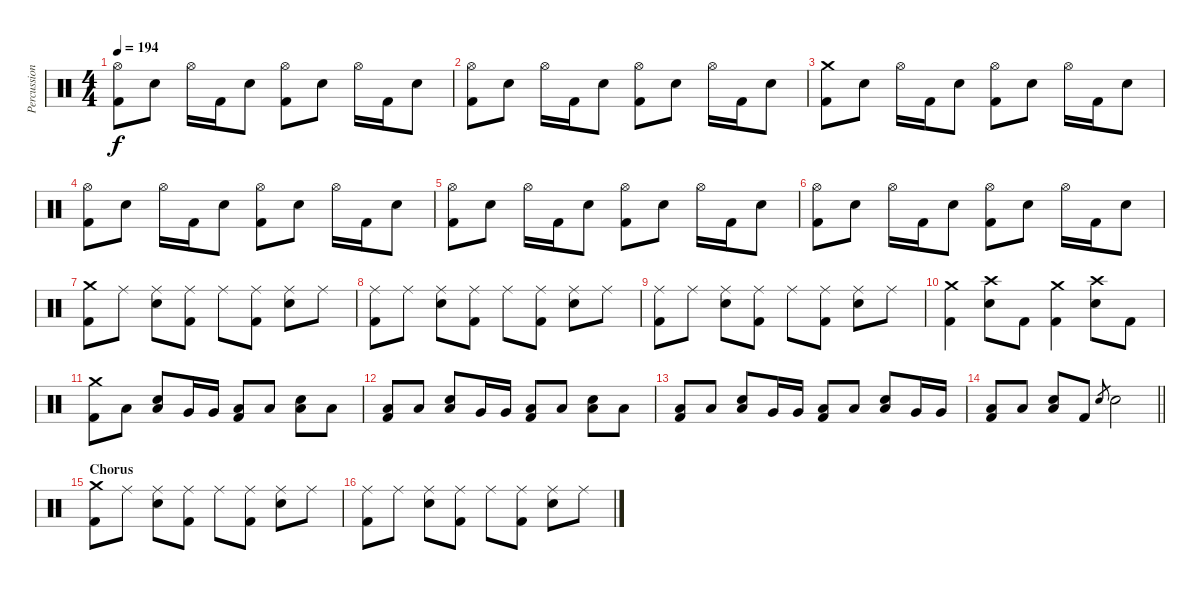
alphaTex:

\track ("Percussions" "Percussion") {instrument percussion}
\staff {score}
\articulation defaults
\ts (4 4)
\tempo 194
\clef neutral
\ks c
("Hi-Hat (open)" "Kick (hit) 2").8{dy f} "Electric Snare (hit)".8 "Hi-Hat (open)".16 "Kick (hit) 2".16 "Electric Snare (hit)".8 ("Hi-Hat (open)" "Kick (hit) 2").8 "Electric Snare (hit)".8 "Hi-Hat (open)".16 "Kick (hit) 2".16 "Electric Snare (hit)".8 |
("Hi-Hat (open)" "Kick (hit) 2").8 "Electric Snare (hit)".8 "Hi-Hat (open)".16 "Kick (hit) 2".16 "Electric Snare (hit)".8 ("Hi-Hat (open)" "Kick (hit) 2").8 "Electric Snare (hit)".8 "Hi-Hat (open)".16 "Kick (hit) 2".16 "Electric Snare (hit)".8 |
("Crash medium (hit)" "Kick (hit) 2").8 "Electric Snare (hit)".8 "Hi-Hat (open)".16 "Kick (hit) 2".16 "Electric Snare (hit)".8 ("Hi-Hat (open)" "Kick (hit) 2").8 "Electric Snare (hit)".8 "Hi-Hat (open)".16 "Kick (hit) 2".16 "Electric Snare (hit)".8 |
("Hi-Hat (open)" "Kick (hit) 2").8 "Electric Snare (hit)".8 "Hi-Hat (open)".16 "Kick (hit) 2".16 "Electric Snare (hit)".8 ("Hi-Hat (open)" "Kick (hit) 2").8 "Electric Snare (hit)".8 "Hi-Hat (open)".16 "Kick (hit) 2".16 "Electric Snare (hit)".8 |
("Hi-Hat (open)" "Kick (hit) 2").8 "Electric Snare (hit)".8 "Hi-Hat (open)".16 "Kick (hit) 2".16 "Electric Snare (hit)".8 ("Hi-Hat (open)" "Kick (hit) 2").8 "Electric Snare (hit)".8 "Hi-Hat (open)".16 "Kick (hit) 2".16 "Electric Snare (hit)".8 |
("Hi-Hat (open)" "Kick (hit) 2").8 "Electric Snare (hit)".8 "Hi-Hat (open)".16 "Kick (hit) 2".16 "Electric Snare (hit)".8 ("Hi-Hat (open)" "Kick (hit) 2").8 "Electric Snare (hit)".8 "Hi-Hat (open)".16 "Kick (hit) 2".16 "Electric Snare (hit)".8 |
("Crash medium (hit)" "Kick (hit) 2").8 "Ride (middle)".8 ("Ride (middle)" "Electric Snare (hit)").8 ("Ride (middle)" "Kick (hit) 2").8 "Ride (middle)".8 ("Ride (middle)" "Kick (hit) 2").8 ("Ride (middle)" "Electric Snare (hit)").8 "Ride (middle)".8 |
("Ride (middle)" "Kick (hit) 2").8 "Ride (middle)".8 ("Ride (middle)" "Electric Snare (hit)").8 ("Ride (middle)" "Kick (hit) 2").8 "Ride (middle)".8 ("Ride (middle)" "Kick (hit) 2").8 ("Ride (middle)" "Electric Snare (hit)").8 "Ride (middle)".8 |
("Ride (middle)" "Kick (hit) 2").8 "Ride (middle)".8 ("Ride (middle)" "Electric Snare (hit)").8 ("Ride (middle)" "Kick (hit) 2").8 "Ride (middle)".8 ("Ride (middle)" "Kick (hit) 2").8 ("Ride (middle)" "Electric Snare (hit)").8 "Ride (middle)".8 |
("Crash medium (hit)" "Kick (hit) 2").4 ("Crash high (hit)" "Electric Snare (hit)").8 "Kick (hit) 2".8 ("Crash medium (hit)" "Kick (hit) 2").4 ("Crash high (hit)" "Electric Snare (hit)").8 "Kick (hit) 2".8 |
("Crash medium (hit)" "Kick (hit) 2").8 "Low Floor Tom (hit)".8 ("Low Floor Tom (hit)" "Electric Snare (hit)").8 "Very Low Tom (hit)".16 "Very Low Tom (hit)".16 ("Low Floor Tom (hit)" "Kick (hit) 2").8 "Low Floor Tom (hit)".8 ("Low Floor Tom (hit)" "Electric Snare (hit)").8 "Low Floor Tom (hit)".8 |
("Low Floor Tom (hit)" "Kick (hit) 2").8 "Low Floor Tom (hit)".8 ("Low Floor Tom (hit)" "Electric Snare (hit)").8 "Very Low Tom (hit)".16 "Very Low Tom (hit)".16 ("Low Floor Tom (hit)" "Kick (hit) 2").8 "Low Floor Tom (hit)".8 ("Low Floor Tom (hit)" "Electric Snare (hit)").8 "Low Floor Tom (hit)".8 |
("Low Floor Tom (hit)" "Kick (hit) 2").8 "Low Floor Tom (hit)".8 ("Low Floor Tom (hit)" "Electric Snare (hit)").8 "Very Low Tom (hit)".16 "Very Low Tom (hit)".16 ("Low Floor Tom (hit)" "Kick (hit) 2").8 "Low Floor Tom (hit)".8 ("Low Floor Tom (hit)" "Electric Snare (hit)").8 "Very Low Tom (hit)".16 "Very Low Tom (hit)".16 |
\barLineRight lightlight
("Low Floor Tom (hit)" "Kick (hit) 2").8 "Low Floor Tom (hit)".8 ("Low Floor Tom (hit)" "Electric Snare (hit)").8 "Kick (hit) 2".8 "Electric Snare (hit)"{x}.8{gr} "Electric Snare (hit)".2 |
\section ("" "Chorus")
("Crash medium (hit)" "Kick (hit) 2").8 "Ride (middle)".8 ("Ride (middle)" "Electric Snare (hit)").8 ("Ride (middle)" "Kick (hit) 2").8 "Ride (middle)".8 ("Ride (middle)" "Kick (hit) 2").8 ("Ride (middle)" "Electric Snare (hit)").8 "Ride (middle)".8 |
("Ride (middle)" "Kick (hit) 2").8 "Ride (middle)".8 ("Ride (middle)" "Electric Snare (hit)").8 ("Ride (middle)" "Kick (hit) 2").8 "Ride (middle)".8 ("Ride (middle)" "Kick (hit) 2").8 ("Ride (middle)" "Electric Snare (hit)").8 "Ride (middle)".8
